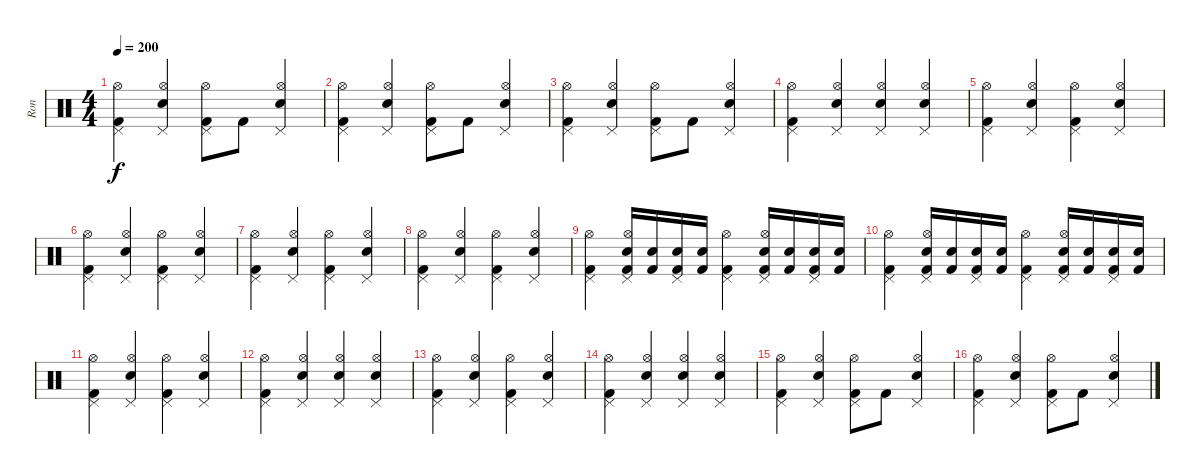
\track ("Ron" "Ron") {instrument percussion}
\staff {score}
\articulation defaults
\ts (4 4)
\tempo 200
\clef neutral
\ks c
("Pedal Hi-Hat (hit)" "Kick (hit) 2" "Hi-Hat (open)").4{dy f} ("Electric Snare (hit)" "Pedal Hi-Hat (hit)" "Hi-Hat (open)").4 ("Pedal Hi-Hat (hit)" "Kick (hit) 2" "Hi-Hat (open)").8 "Kick (hit) 2".8 ("Electric Snare (hit)" "Pedal Hi-Hat (hit)" "Hi-Hat (open)").4 |
("Pedal Hi-Hat (hit)" "Kick (hit) 2" "Hi-Hat (open)").4 ("Electric Snare (hit)" "Pedal Hi-Hat (hit)" "Hi-Hat (open)").4 ("Pedal Hi-Hat (hit)" "Kick (hit) 2" "Hi-Hat (open)").8 "Kick (hit) 2".8 ("Electric Snare (hit)" "Pedal Hi-Hat (hit)" "Hi-Hat (open)").4 |
("Pedal Hi-Hat (hit)" "Kick (hit) 2" "Hi-Hat (open)").4 ("Electric Snare (hit)" "Pedal Hi-Hat (hit)" "Hi-Hat (open)").4 ("Pedal Hi-Hat (hit)" "Kick (hit) 2" "Hi-Hat (open)").8 "Kick (hit) 2".8 ("Electric Snare (hit)" "Pedal Hi-Hat (hit)" "Hi-Hat (open)").4 |
("Pedal Hi-Hat (hit)" "Kick (hit) 2" "Hi-Hat (open)").4 ("Pedal Hi-Hat (hit)" "Electric Snare (hit)" "Hi-Hat (open)").4 ("Pedal Hi-Hat (hit)" "Electric Snare (hit)" "Hi-Hat (open)").4 ("Pedal Hi-Hat (hit)" "Electric Snare (hit)" "Hi-Hat (open)").4 |
("Pedal Hi-Hat (hit)" "Kick (hit) 2" "Hi-Hat (open)").4 ("Pedal Hi-Hat (hit)" "Electric Snare (hit)" "Hi-Hat (open)").4 ("Pedal Hi-Hat (hit)" "Kick (hit) 2" "Hi-Hat (open)").4 ("Pedal Hi-Hat (hit)" "Electric Snare (hit)" "Hi-Hat (open)").4 |
("Pedal Hi-Hat (hit)" "Kick (hit) 2" "Hi-Hat (open)").4 ("Pedal Hi-Hat (hit)" "Electric Snare (hit)" "Hi-Hat (open)").4 ("Pedal Hi-Hat (hit)" "Kick (hit) 2" "Hi-Hat (open)").4 ("Pedal Hi-Hat (hit)" "Electric Snare (hit)" "Hi-Hat (open)").4 |
("Pedal Hi-Hat (hit)" "Kick (hit) 2" "Hi-Hat (open)").4 ("Pedal Hi-Hat (hit)" "Electric Snare (hit)" "Hi-Hat (open)").4 ("Pedal Hi-Hat (hit)" "Kick (hit) 2" "Hi-Hat (open)").4 ("Pedal Hi-Hat (hit)" "Electric Snare (hit)" "Hi-Hat (open)").4 |
("Pedal Hi-Hat (hit)" "Kick (hit) 2" "Hi-Hat (open)").4 ("Pedal Hi-Hat (hit)" "Electric Snare (hit)" "Hi-Hat (open)").4 ("Pedal Hi-Hat (hit)" "Kick (hit) 2" "Hi-Hat (open)").4 ("Pedal Hi-Hat (hit)" "Electric Snare (hit)" "Hi-Hat (open)").4 |
("Pedal Hi-Hat (hit)" "Kick (hit) 2" "Hi-Hat (open)").4 ("Pedal Hi-Hat (hit)" "Electric Snare (hit)" "Kick (hit) 2" "Hi-Hat (open)").16 ("Kick (hit) 2" "Electric Snare (hit)").16 ("Pedal Hi-Hat (hit)" "Kick (hit) 2" "Electric Snare (hit)").16 ("Kick (hit) 2" "Electric Snare (hit)").16 ("Pedal Hi-Hat (hit)" "Kick (hit) 2" "Hi-Hat (open)").4 ("Pedal Hi-Hat (hit)" "Electric Snare (hit)" "Kick (hit) 2" "Hi-Hat (open)").16 ("Kick (hit) 2" "Electric Snare (hit)").16 ("Pedal Hi-Hat (hit)" "Kick (hit) 2" "Electric Snare (hit)").16 ("Kick (hit) 2" "Electric Snare (hit)").16 |
("Pedal Hi-Hat (hit)" "Kick (hit) 2" "Hi-Hat (open)").4 ("Pedal Hi-Hat (hit)" "Electric Snare (hit)" "Kick (hit) 2" "Hi-Hat (open)").16 ("Kick (hit) 2" "Electric Snare (hit)").16 ("Pedal Hi-Hat (hit)" "Kick (hit) 2" "Electric Snare (hit)").16 ("Kick (hit) 2" "Electric Snare (hit)").16 ("Pedal Hi-Hat (hit)" "Kick (hit) 2" "Hi-Hat (open)").4 ("Pedal Hi-Hat (hit)" "Electric Snare (hit)" "Kick (hit) 2" "Hi-Hat (open)").16 ("Kick (hit) 2" "Electric Snare (hit)").16 ("Pedal Hi-Hat (hit)" "Kick (hit) 2" "Electric Snare (hit)").16 ("Kick (hit) 2" "Electric Snare (hit)").16 |
("Pedal Hi-Hat (hit)" "Kick (hit) 2" "Hi-Hat (open)").4 ("Pedal Hi-Hat (hit)" "Electric Snare (hit)" "Hi-Hat (open)").4 ("Pedal Hi-Hat (hit)" "Kick (hit) 2" "Hi-Hat (open)").4 ("Pedal Hi-Hat (hit)" "Electric Snare (hit)" "Hi-Hat (open)").4 |
("Pedal Hi-Hat (hit)" "Kick (hit) 2" "Hi-Hat (open)").4 ("Pedal Hi-Hat (hit)" "Electric Snare (hit)" "Hi-Hat (open)").4 ("Pedal Hi-Hat (hit)" "Electric Snare (hit)" "Hi-Hat (open)").4 ("Pedal Hi-Hat (hit)" "Electric Snare (hit)" "Hi-Hat (open)").4 |
("Pedal Hi-Hat (hit)" "Kick (hit) 2" "Hi-Hat (open)").4 ("Pedal Hi-Hat (hit)" "Electric Snare (hit)" "Hi-Hat (open)").4 ("Pedal Hi-Hat (hit)" "Kick (hit) 2" "Hi-Hat (open)").4 ("Pedal Hi-Hat (hit)" "Electric Snare (hit)" "Hi-Hat (open)").4 |
("Pedal Hi-Hat (hit)" "Kick (hit) 2" "Hi-Hat (open)").4 ("Pedal Hi-Hat (hit)" "Electric Snare (hit)" "Hi-Hat (open)").4 ("Pedal Hi-Hat (hit)" "Electric Snare (hit)" "Hi-Hat (open)").4 ("Pedal Hi-Hat (hit)" "Electric Snare (hit)" "Hi-Hat (open)").4 |
("Pedal Hi-Hat (hit)" "Kick (hit) 2" "Hi-Hat (open)").4 ("Electric Snare (hit)" "Pedal Hi-Hat (hit)" "Hi-Hat (open)").4 ("Pedal Hi-Hat (hit)" "Kick (hit) 2" "Hi-Hat (open)").8 "Kick (hit) 2".8 ("Electric Snare (hit)" "Pedal Hi-Hat (hit)" "Hi-Hat (open)").4 |
("Pedal Hi-Hat (hit)" "Kick (hit) 2" "Hi-Hat (open)").4 ("Electric Snare (hit)" "Pedal Hi-Hat (hit)" "Hi-Hat (open)").4 ("Pedal Hi-Hat (hit)" "Kick (hit) 2" "Hi-Hat (open)").8 "Kick (hit) 2".8 ("Electric Snare (hit)" "Pedal Hi-Hat (hit)" "Hi-Hat (open)").4
